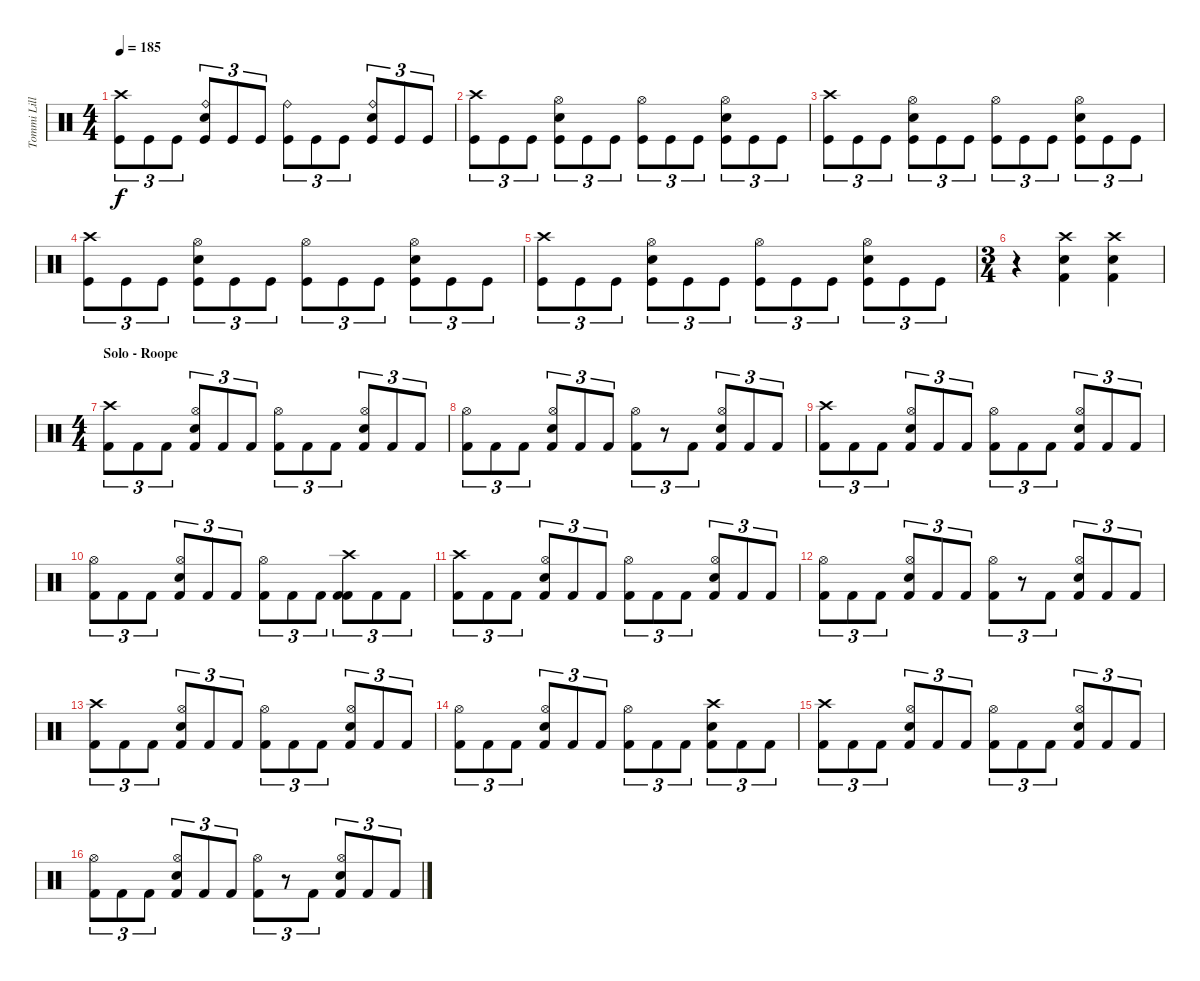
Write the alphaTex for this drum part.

\track ("Tommi Lillman" "Tommi Lill") {instrument percussion}
\staff {score}
\articulation defaults
\ts (4 4)
\tempo 185
\clef neutral
\ks c
("Crash high (hit)" "Kick (hit)").8{tu (3 2) dy f} "Kick (hit)".8{tu (3 2)} "Kick (hit)".8{tu (3 2)} ("Ride (bell)" "Snare (hit) 2" "Kick (hit)").8{tu (3 2)} "Kick (hit)".8{tu (3 2)} "Kick (hit)".8{tu (3 2)} ("Ride (bell)" "Kick (hit)").8{tu (3 2)} "Kick (hit)".8{tu (3 2)} "Kick (hit)".8{tu (3 2)} ("Ride (bell)" "Snare (hit) 2" "Kick (hit)").8{tu (3 2)} "Kick (hit)".8{tu (3 2)} "Kick (hit)".8{tu (3 2)} |
("Crash high (hit)" "Kick (hit)").8{tu (3 2)} "Kick (hit)".8{tu (3 2)} "Kick (hit)".8{tu (3 2)} ("Hi-Hat (open)" "Snare (hit) 2" "Kick (hit)").8{tu (3 2)} "Kick (hit)".8{tu (3 2)} "Kick (hit)".8{tu (3 2)} ("Hi-Hat (open)" "Kick (hit)").8{tu (3 2)} "Kick (hit)".8{tu (3 2)} "Kick (hit)".8{tu (3 2)} ("Hi-Hat (open)" "Snare (hit) 2" "Kick (hit)").8{tu (3 2)} "Kick (hit)".8{tu (3 2)} "Kick (hit)".8{tu (3 2)} |
("Crash high (hit)" "Kick (hit)").8{tu (3 2)} "Kick (hit)".8{tu (3 2)} "Kick (hit)".8{tu (3 2)} ("Hi-Hat (open)" "Snare (hit) 2" "Kick (hit)").8{tu (3 2)} "Kick (hit)".8{tu (3 2)} "Kick (hit)".8{tu (3 2)} ("Hi-Hat (open)" "Kick (hit)").8{tu (3 2)} "Kick (hit)".8{tu (3 2)} "Kick (hit)".8{tu (3 2)} ("Hi-Hat (open)" "Snare (hit) 2" "Kick (hit)").8{tu (3 2)} "Kick (hit)".8{tu (3 2)} "Kick (hit)".8{tu (3 2)} |
("Crash high (hit)" "Kick (hit)").8{tu (3 2)} "Kick (hit)".8{tu (3 2)} "Kick (hit)".8{tu (3 2)} ("Hi-Hat (open)" "Snare (hit) 2" "Kick (hit)").8{tu (3 2)} "Kick (hit)".8{tu (3 2)} "Kick (hit)".8{tu (3 2)} ("Hi-Hat (open)" "Kick (hit)").8{tu (3 2)} "Kick (hit)".8{tu (3 2)} "Kick (hit)".8{tu (3 2)} ("Hi-Hat (open)" "Snare (hit) 2" "Kick (hit)").8{tu (3 2)} "Kick (hit)".8{tu (3 2)} "Kick (hit)".8{tu (3 2)} |
("Crash high (hit)" "Kick (hit)").8{tu (3 2)} "Kick (hit)".8{tu (3 2)} "Kick (hit)".8{tu (3 2)} ("Hi-Hat (open)" "Snare (hit) 2" "Kick (hit)").8{tu (3 2)} "Kick (hit)".8{tu (3 2)} "Kick (hit)".8{tu (3 2)} ("Hi-Hat (open)" "Kick (hit)").8{tu (3 2)} "Kick (hit)".8{tu (3 2)} "Kick (hit)".8{tu (3 2)} ("Hi-Hat (open)" "Snare (hit) 2" "Kick (hit)").8{tu (3 2)} "Kick (hit)".8{tu (3 2)} "Kick (hit)".8{tu (3 2)} |
\ts (3 4)
r.4 ("Crash high (hit)" "Snare (hit) 2" "Kick (hit) 2").4 ("Crash high (hit)" "Snare (hit) 2" "Kick (hit) 2").4 |
\ts (4 4)
\section ("" "Solo - Roope")
("Crash high (hit)" "Kick (hit) 2").8{tu (3 2)} "Kick (hit) 2".8{tu (3 2)} "Kick (hit) 2".8{tu (3 2)} ("Hi-Hat (open)" "Snare (hit) 2" "Kick (hit) 2").8{tu (3 2)} "Kick (hit) 2".8{tu (3 2)} "Kick (hit) 2".8{tu (3 2)} ("Hi-Hat (open)" "Kick (hit) 2").8{tu (3 2)} "Kick (hit) 2".8{tu (3 2)} "Kick (hit) 2".8{tu (3 2)} ("Hi-Hat (open)" "Snare (hit) 2" "Kick (hit) 2").8{tu (3 2)} "Kick (hit) 2".8{tu (3 2)} "Kick (hit) 2".8{tu (3 2)} |
("Hi-Hat (open)" "Kick (hit) 2").8{tu (3 2)} "Kick (hit) 2".8{tu (3 2)} "Kick (hit) 2".8{tu (3 2)} ("Hi-Hat (open)" "Snare (hit) 2" "Kick (hit) 2").8{tu (3 2)} "Kick (hit) 2".8{tu (3 2)} "Kick (hit) 2".8{tu (3 2)} ("Hi-Hat (open)" "Kick (hit) 2").8{tu (3 2)} r.8{tu (3 2)} "Kick (hit) 2".8{tu (3 2)} ("Hi-Hat (open)" "Snare (hit) 2" "Kick (hit) 2").8{tu (3 2)} "Kick (hit) 2".8{tu (3 2)} "Kick (hit) 2".8{tu (3 2)} |
("Crash high (hit)" "Kick (hit) 2").8{tu (3 2)} "Kick (hit) 2".8{tu (3 2)} "Kick (hit) 2".8{tu (3 2)} ("Hi-Hat (open)" "Snare (hit) 2" "Kick (hit) 2").8{tu (3 2)} "Kick (hit) 2".8{tu (3 2)} "Kick (hit) 2".8{tu (3 2)} ("Hi-Hat (open)" "Kick (hit) 2").8{tu (3 2)} "Kick (hit) 2".8{tu (3 2)} "Kick (hit) 2".8{tu (3 2)} ("Hi-Hat (open)" "Snare (hit) 2" "Kick (hit) 2").8{tu (3 2)} "Kick (hit) 2".8{tu (3 2)} "Kick (hit) 2".8{tu (3 2)} |
("Hi-Hat (open)" "Kick (hit) 2").8{tu (3 2)} "Kick (hit) 2".8{tu (3 2)} "Kick (hit) 2".8{tu (3 2)} ("Hi-Hat (open)" "Snare (hit) 2" "Kick (hit) 2").8{tu (3 2)} "Kick (hit) 2".8{tu (3 2)} "Kick (hit) 2".8{tu (3 2)} ("Hi-Hat (open)" "Kick (hit) 2").8{tu (3 2)} "Kick (hit) 2".8{tu (3 2)} "Kick (hit) 2".8{tu (3 2)} ("Crash high (hit)" "Kick (hit) 2" "Kick (hit) 2").8{tu (3 2)} "Kick (hit) 2".8{tu (3 2)} "Kick (hit) 2".8{tu (3 2)} |
("Crash high (hit)" "Kick (hit) 2").8{tu (3 2)} "Kick (hit) 2".8{tu (3 2)} "Kick (hit) 2".8{tu (3 2)} ("Hi-Hat (open)" "Snare (hit) 2" "Kick (hit) 2").8{tu (3 2)} "Kick (hit) 2".8{tu (3 2)} "Kick (hit) 2".8{tu (3 2)} ("Hi-Hat (open)" "Kick (hit) 2").8{tu (3 2)} "Kick (hit) 2".8{tu (3 2)} "Kick (hit) 2".8{tu (3 2)} ("Hi-Hat (open)" "Snare (hit) 2" "Kick (hit) 2").8{tu (3 2)} "Kick (hit) 2".8{tu (3 2)} "Kick (hit) 2".8{tu (3 2)} |
("Hi-Hat (open)" "Kick (hit) 2").8{tu (3 2)} "Kick (hit) 2".8{tu (3 2)} "Kick (hit) 2".8{tu (3 2)} ("Hi-Hat (open)" "Snare (hit) 2" "Kick (hit) 2").8{tu (3 2)} "Kick (hit) 2".8{tu (3 2)} "Kick (hit) 2".8{tu (3 2)} ("Hi-Hat (open)" "Kick (hit) 2").8{tu (3 2)} r.8{tu (3 2)} "Kick (hit) 2".8{tu (3 2)} ("Hi-Hat (open)" "Snare (hit) 2" "Kick (hit) 2").8{tu (3 2)} "Kick (hit) 2".8{tu (3 2)} "Kick (hit) 2".8{tu (3 2)} |
("Crash high (hit)" "Kick (hit) 2").8{tu (3 2)} "Kick (hit) 2".8{tu (3 2)} "Kick (hit) 2".8{tu (3 2)} ("Hi-Hat (open)" "Snare (hit) 2" "Kick (hit) 2").8{tu (3 2)} "Kick (hit) 2".8{tu (3 2)} "Kick (hit) 2".8{tu (3 2)} ("Hi-Hat (open)" "Kick (hit) 2").8{tu (3 2)} "Kick (hit) 2".8{tu (3 2)} "Kick (hit) 2".8{tu (3 2)} ("Hi-Hat (open)" "Snare (hit) 2" "Kick (hit) 2").8{tu (3 2)} "Kick (hit) 2".8{tu (3 2)} "Kick (hit) 2".8{tu (3 2)} |
("Hi-Hat (open)" "Kick (hit) 2").8{tu (3 2)} "Kick (hit) 2".8{tu (3 2)} "Kick (hit) 2".8{tu (3 2)} ("Hi-Hat (open)" "Snare (hit) 2" "Kick (hit) 2").8{tu (3 2)} "Kick (hit) 2".8{tu (3 2)} "Kick (hit) 2".8{tu (3 2)} ("Hi-Hat (open)" "Kick (hit) 2").8{tu (3 2)} "Kick (hit) 2".8{tu (3 2)} "Kick (hit) 2".8{tu (3 2)} ("Crash high (hit)" "Snare (hit) 2" "Kick (hit) 2").8{tu (3 2)} "Kick (hit) 2".8{tu (3 2)} "Kick (hit) 2".8{tu (3 2)} |
("Crash high (hit)" "Kick (hit) 2").8{tu (3 2)} "Kick (hit) 2".8{tu (3 2)} "Kick (hit) 2".8{tu (3 2)} ("Hi-Hat (open)" "Snare (hit) 2" "Kick (hit) 2").8{tu (3 2)} "Kick (hit) 2".8{tu (3 2)} "Kick (hit) 2".8{tu (3 2)} ("Hi-Hat (open)" "Kick (hit) 2").8{tu (3 2)} "Kick (hit) 2".8{tu (3 2)} "Kick (hit) 2".8{tu (3 2)} ("Hi-Hat (open)" "Snare (hit) 2" "Kick (hit) 2").8{tu (3 2)} "Kick (hit) 2".8{tu (3 2)} "Kick (hit) 2".8{tu (3 2)} |
("Hi-Hat (open)" "Kick (hit) 2").8{tu (3 2)} "Kick (hit) 2".8{tu (3 2)} "Kick (hit) 2".8{tu (3 2)} ("Hi-Hat (open)" "Snare (hit) 2" "Kick (hit) 2").8{tu (3 2)} "Kick (hit) 2".8{tu (3 2)} "Kick (hit) 2".8{tu (3 2)} ("Hi-Hat (open)" "Kick (hit) 2").8{tu (3 2)} r.8{tu (3 2)} "Kick (hit) 2".8{tu (3 2)} ("Hi-Hat (open)" "Snare (hit) 2" "Kick (hit) 2").8{tu (3 2)} "Kick (hit) 2".8{tu (3 2)} "Kick (hit) 2".8{tu (3 2)}
